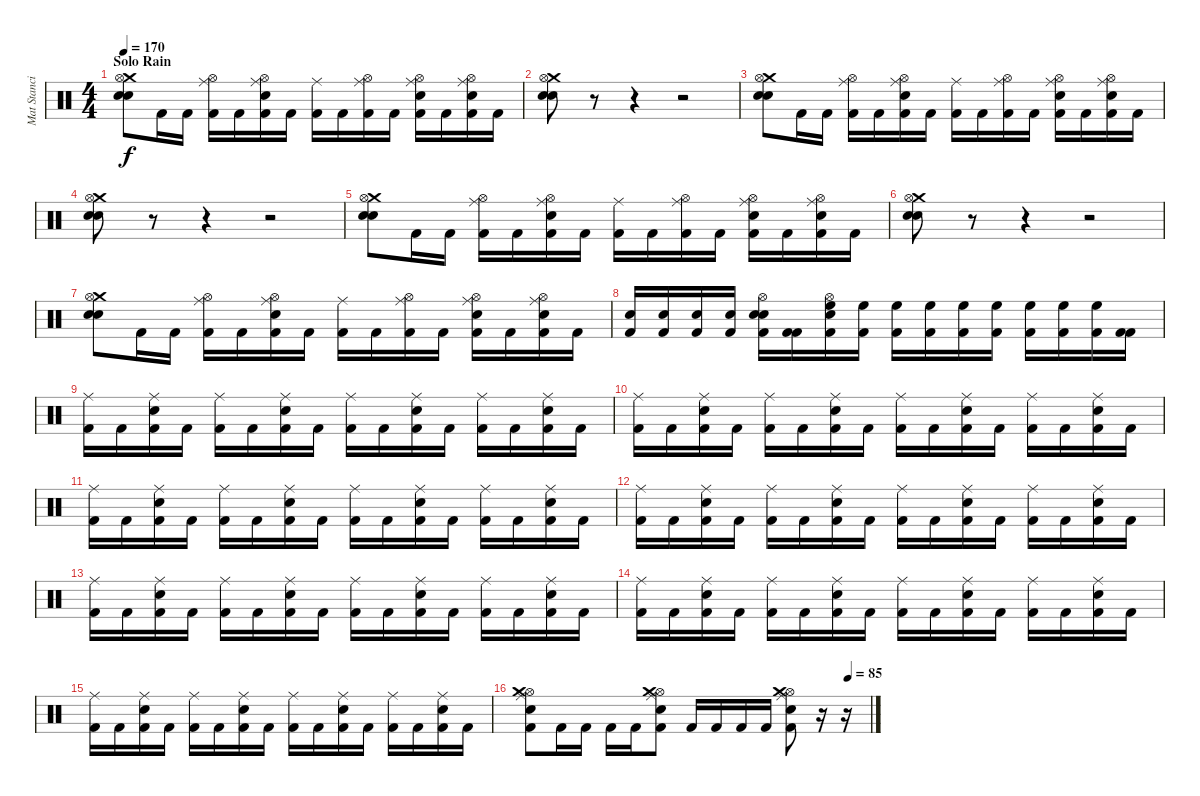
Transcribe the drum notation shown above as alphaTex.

\track ("Mat Stancioiu" "Mat Stanci") {instrument percussion}
\staff {score}
\articulation defaults
\ts (4 4)
\section ("" "Solo Rain")
\tempo 170
\clef neutral
\ks c
("Crash medium (hit)" "Hi-Hat (open)" "Snare (hit)" "Electric Snare (hit)").8{dy f} "Kick (hit) 2".16 "Kick (hit) 2".16 ("Kick (hit) 2" "Hi-Hat (open)" "Ride (middle)").16 "Kick (hit) 2".16 ("Electric Snare (hit)" "Hi-Hat (open)" "Kick (hit) 2" "Ride (middle)").16 "Kick (hit) 2".16 ("Kick (hit) 2" "Ride (middle)").16 "Kick (hit) 2".16 ("Kick (hit) 2" "Hi-Hat (open)" "Ride (middle)").16 "Kick (hit) 2".16 ("Electric Snare (hit)" "Hi-Hat (open)" "Kick (hit) 2" "Ride (middle)").16 "Kick (hit) 2".16 ("Electric Snare (hit)" "Hi-Hat (open)" "Kick (hit) 2" "Ride (middle)").16 "Kick (hit) 2".16 |
("Crash medium (hit)" "Hi-Hat (open)" "Snare (hit)" "Electric Snare (hit)").8 r.8 r.4 r.2 |
("Crash medium (hit)" "Hi-Hat (open)" "Snare (hit)" "Electric Snare (hit)").8 "Kick (hit) 2".16 "Kick (hit) 2".16 ("Kick (hit) 2" "Hi-Hat (open)" "Ride (middle)").16 "Kick (hit) 2".16 ("Electric Snare (hit)" "Hi-Hat (open)" "Kick (hit) 2" "Ride (middle)").16 "Kick (hit) 2".16 ("Kick (hit) 2" "Ride (middle)").16 "Kick (hit) 2".16 ("Kick (hit) 2" "Hi-Hat (open)" "Ride (middle)").16 "Kick (hit) 2".16 ("Electric Snare (hit)" "Hi-Hat (open)" "Kick (hit) 2" "Ride (middle)").16 "Kick (hit) 2".16 ("Electric Snare (hit)" "Hi-Hat (open)" "Kick (hit) 2" "Ride (middle)").16 "Kick (hit) 2".16 |
("Crash medium (hit)" "Hi-Hat (open)" "Snare (hit)" "Electric Snare (hit)").8 r.8 r.4 r.2 |
("Crash medium (hit)" "Hi-Hat (open)" "Snare (hit)" "Electric Snare (hit)").8 "Kick (hit) 2".16 "Kick (hit) 2".16 ("Kick (hit) 2" "Hi-Hat (open)" "Ride (middle)").16 "Kick (hit) 2".16 ("Electric Snare (hit)" "Hi-Hat (open)" "Kick (hit) 2" "Ride (middle)").16 "Kick (hit) 2".16 ("Kick (hit) 2" "Ride (middle)").16 "Kick (hit) 2".16 ("Kick (hit) 2" "Hi-Hat (open)" "Ride (middle)").16 "Kick (hit) 2".16 ("Electric Snare (hit)" "Hi-Hat (open)" "Kick (hit) 2" "Ride (middle)").16 "Kick (hit) 2".16 ("Electric Snare (hit)" "Hi-Hat (open)" "Kick (hit) 2" "Ride (middle)").16 "Kick (hit) 2".16 |
("Crash medium (hit)" "Hi-Hat (open)" "Snare (hit)" "Electric Snare (hit)").8 r.8 r.4 r.2 |
("Crash medium (hit)" "Hi-Hat (open)" "Snare (hit)" "Electric Snare (hit)").8 "Kick (hit) 2".16 "Kick (hit) 2".16 ("Kick (hit) 2" "Hi-Hat (open)" "Ride (middle)").16 "Kick (hit) 2".16 ("Electric Snare (hit)" "Hi-Hat (open)" "Kick (hit) 2" "Ride (middle)").16 "Kick (hit) 2".16 ("Kick (hit) 2" "Ride (middle)").16 "Kick (hit) 2".16 ("Kick (hit) 2" "Hi-Hat (open)" "Ride (middle)").16 "Kick (hit) 2".16 ("Electric Snare (hit)" "Hi-Hat (open)" "Kick (hit) 2" "Ride (middle)").16 "Kick (hit) 2".16 ("Electric Snare (hit)" "Hi-Hat (open)" "Kick (hit) 2" "Ride (middle)").16 "Kick (hit) 2".16 |
("Electric Snare (hit)" "Kick (hit) 2").16 ("Electric Snare (hit)" "Kick (hit) 2").16 ("Electric Snare (hit)" "Kick (hit) 2").16 ("Electric Snare (hit)" "Kick (hit) 2").16 ("Electric Snare (hit)" "Kick (hit) 2" "Hi-Hat (open)" "Snare (hit)").16 ("Kick (hit) 2" "Kick (hit) 2").16 ("Kick (hit) 2" "High Floor Tom (hit)" "Hi-Hat (open)" "Snare (hit)").16 ("Kick (hit) 2" "High Floor Tom (hit)").16 ("Kick (hit) 2" "High Floor Tom (hit)").16 ("Kick (hit) 2" "High Floor Tom (hit)").16 ("Kick (hit) 2" "High Floor Tom (hit)").16 ("Kick (hit) 2" "High Floor Tom (hit)").16 ("Kick (hit) 2" "High Floor Tom (hit)").16 ("Kick (hit) 2" "High Floor Tom (hit)").16 ("Kick (hit) 2" "High Floor Tom (hit)").16 ("Kick (hit) 2" "Kick (hit) 2").16 |
("Kick (hit) 2" "Ride (middle)").16 "Kick (hit) 2".16 ("Electric Snare (hit)" "Kick (hit) 2" "Ride (middle)").16 "Kick (hit) 2".16 ("Kick (hit) 2" "Ride (middle)").16 "Kick (hit) 2".16 ("Electric Snare (hit)" "Kick (hit) 2" "Ride (middle)").16 "Kick (hit) 2".16 ("Kick (hit) 2" "Ride (middle)").16 "Kick (hit) 2".16 ("Electric Snare (hit)" "Kick (hit) 2" "Ride (middle)").16 "Kick (hit) 2".16 ("Kick (hit) 2" "Ride (middle)").16 "Kick (hit) 2".16 ("Electric Snare (hit)" "Kick (hit) 2" "Ride (middle)").16 "Kick (hit) 2".16 |
("Kick (hit) 2" "Ride (middle)").16 "Kick (hit) 2".16 ("Electric Snare (hit)" "Kick (hit) 2" "Ride (middle)").16 "Kick (hit) 2".16 ("Kick (hit) 2" "Ride (middle)").16 "Kick (hit) 2".16 ("Electric Snare (hit)" "Kick (hit) 2" "Ride (middle)").16 "Kick (hit) 2".16 ("Kick (hit) 2" "Ride (middle)").16 "Kick (hit) 2".16 ("Electric Snare (hit)" "Kick (hit) 2" "Ride (middle)").16 "Kick (hit) 2".16 ("Kick (hit) 2" "Ride (middle)").16 "Kick (hit) 2".16 ("Electric Snare (hit)" "Kick (hit) 2" "Ride (middle)").16 "Kick (hit) 2".16 |
("Kick (hit) 2" "Ride (middle)").16 "Kick (hit) 2".16 ("Electric Snare (hit)" "Kick (hit) 2" "Ride (middle)").16 "Kick (hit) 2".16 ("Kick (hit) 2" "Ride (middle)").16 "Kick (hit) 2".16 ("Electric Snare (hit)" "Kick (hit) 2" "Ride (middle)").16 "Kick (hit) 2".16 ("Kick (hit) 2" "Ride (middle)").16 "Kick (hit) 2".16 ("Electric Snare (hit)" "Kick (hit) 2" "Ride (middle)").16 "Kick (hit) 2".16 ("Kick (hit) 2" "Ride (middle)").16 "Kick (hit) 2".16 ("Electric Snare (hit)" "Kick (hit) 2" "Ride (middle)").16 "Kick (hit) 2".16 |
("Kick (hit) 2" "Ride (middle)").16 "Kick (hit) 2".16 ("Electric Snare (hit)" "Kick (hit) 2" "Ride (middle)").16 "Kick (hit) 2".16 ("Kick (hit) 2" "Ride (middle)").16 "Kick (hit) 2".16 ("Electric Snare (hit)" "Kick (hit) 2" "Ride (middle)").16 "Kick (hit) 2".16 ("Kick (hit) 2" "Ride (middle)").16 "Kick (hit) 2".16 ("Electric Snare (hit)" "Kick (hit) 2" "Ride (middle)").16 "Kick (hit) 2".16 ("Kick (hit) 2" "Ride (middle)").16 "Kick (hit) 2".16 ("Electric Snare (hit)" "Kick (hit) 2" "Ride (middle)").16 "Kick (hit) 2".16 |
("Kick (hit) 2" "Ride (middle)").16 "Kick (hit) 2".16 ("Electric Snare (hit)" "Kick (hit) 2" "Ride (middle)").16 "Kick (hit) 2".16 ("Kick (hit) 2" "Ride (middle)").16 "Kick (hit) 2".16 ("Electric Snare (hit)" "Kick (hit) 2" "Ride (middle)").16 "Kick (hit) 2".16 ("Kick (hit) 2" "Ride (middle)").16 "Kick (hit) 2".16 ("Electric Snare (hit)" "Kick (hit) 2" "Ride (middle)").16 "Kick (hit) 2".16 ("Kick (hit) 2" "Ride (middle)").16 "Kick (hit) 2".16 ("Electric Snare (hit)" "Kick (hit) 2" "Ride (middle)").16 "Kick (hit) 2".16 |
("Kick (hit) 2" "Ride (middle)").16 "Kick (hit) 2".16 ("Electric Snare (hit)" "Kick (hit) 2" "Ride (middle)").16 "Kick (hit) 2".16 ("Kick (hit) 2" "Ride (middle)").16 "Kick (hit) 2".16 ("Electric Snare (hit)" "Kick (hit) 2" "Ride (middle)").16 "Kick (hit) 2".16 ("Kick (hit) 2" "Ride (middle)").16 "Kick (hit) 2".16 ("Electric Snare (hit)" "Kick (hit) 2" "Ride (middle)").16 "Kick (hit) 2".16 ("Kick (hit) 2" "Ride (middle)").16 "Kick (hit) 2".16 ("Electric Snare (hit)" "Kick (hit) 2" "Ride (middle)").16 "Kick (hit) 2".16 |
("Kick (hit) 2" "Ride (middle)").16 "Kick (hit) 2".16 ("Electric Snare (hit)" "Kick (hit) 2" "Ride (middle)").16 "Kick (hit) 2".16 ("Kick (hit) 2" "Ride (middle)").16 "Kick (hit) 2".16 ("Electric Snare (hit)" "Kick (hit) 2" "Ride (middle)").16 "Kick (hit) 2".16 ("Kick (hit) 2" "Ride (middle)").16 "Kick (hit) 2".16 ("Electric Snare (hit)" "Kick (hit) 2" "Ride (middle)").16 "Kick (hit) 2".16 ("Kick (hit) 2" "Ride (middle)").16 "Kick (hit) 2".16 ("Electric Snare (hit)" "Kick (hit) 2" "Ride (middle)").16 "Kick (hit) 2".16 |
\tempo (85 0.9375)
("Electric Snare (hit)" "Hi-Hat (open)" "Kick (hit) 2" "Crash medium (hit)" "Ride (middle)").8 "Kick (hit) 2".16 "Kick (hit) 2".16 "Kick (hit) 2".16 "Kick (hit) 2".16 ("Electric Snare (hit)" "Hi-Hat (open)" "Kick (hit) 2" "Crash medium (hit)" "Ride (middle)").8 "Kick (hit) 2".16 "Kick (hit) 2".16 "Kick (hit) 2".16 "Kick (hit) 2".16 ("Electric Snare (hit)" "Hi-Hat (open)" "Kick (hit) 2" "Crash medium (hit)" "Ride (middle)").8 r.16 r.16{volume 10}
